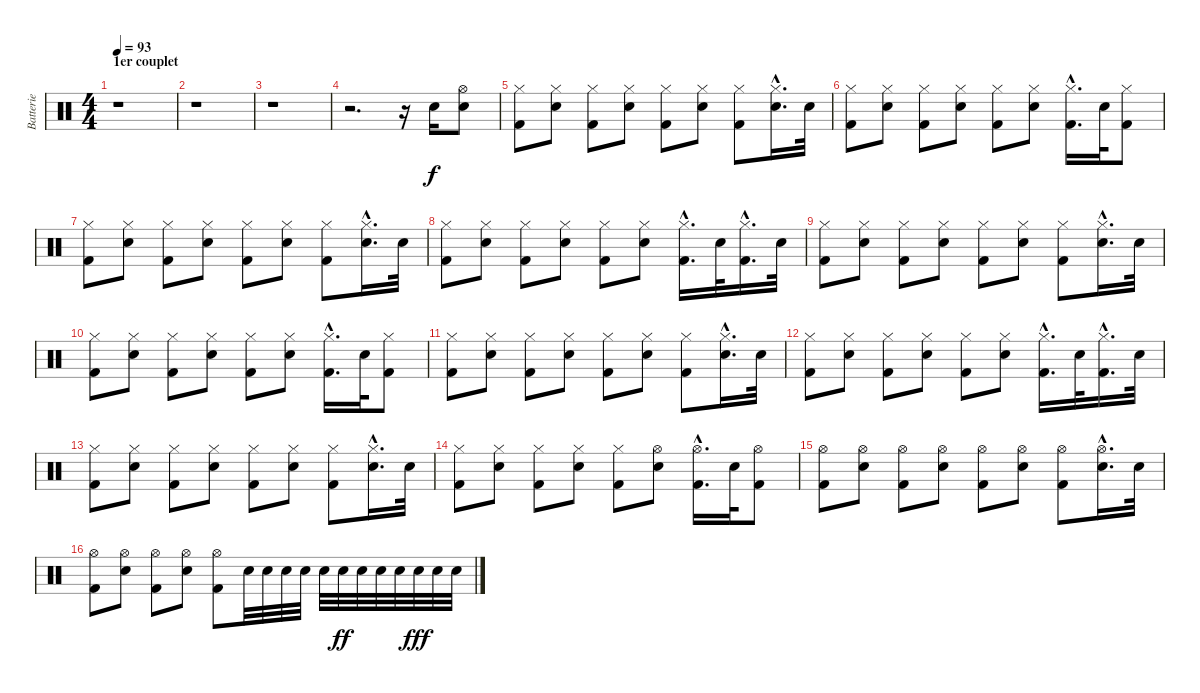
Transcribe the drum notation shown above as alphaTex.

\track ("Batterie" "Batterie") {instrument percussion}
\staff {score}
\articulation defaults
\ts (4 4)
\section ("" "1er couplet")
\tempo 93
\clef neutral
\ks c
r.1{dy f} |
r.1 |
r.1 |
r.2{d} r.16 "Snare (hit) 2".16 ("Hi-Hat (open)" "Snare (hit) 2").8 |
("Hi-Hat (closed)" "Kick (hit) 2").8 ("Hi-Hat (closed)" "Snare (hit) 2").8 ("Hi-Hat (closed)" "Kick (hit) 2").8 ("Hi-Hat (closed)" "Snare (hit) 2").8 ("Hi-Hat (closed)" "Kick (hit) 2").8 ("Hi-Hat (closed)" "Snare (hit) 2").8 ("Hi-Hat (closed)" "Kick (hit) 2").8 ("Hi-Hat (closed)"{hac} "Snare (hit) 2"{hac}).16{d} "Snare (hit) 2".32 |
("Hi-Hat (closed)" "Kick (hit) 2").8 ("Hi-Hat (closed)" "Snare (hit) 2").8 ("Hi-Hat (closed)" "Kick (hit) 2").8 ("Hi-Hat (closed)" "Snare (hit) 2").8 ("Hi-Hat (closed)" "Kick (hit) 2").8 ("Hi-Hat (closed)" "Snare (hit) 2").8 ("Hi-Hat (closed)"{hac} "Kick (hit) 2"{hac}).16{d} "Snare (hit) 2".32 ("Hi-Hat (closed)" "Kick (hit) 2").8 |
("Hi-Hat (closed)" "Kick (hit) 2").8 ("Hi-Hat (closed)" "Snare (hit) 2").8 ("Hi-Hat (closed)" "Kick (hit) 2").8 ("Hi-Hat (closed)" "Snare (hit) 2").8 ("Hi-Hat (closed)" "Kick (hit) 2").8 ("Hi-Hat (closed)" "Snare (hit) 2").8 ("Hi-Hat (closed)" "Kick (hit) 2").8 ("Hi-Hat (closed)"{hac} "Snare (hit) 2"{hac}).16{d} "Snare (hit) 2".32 |
("Hi-Hat (closed)" "Kick (hit) 2").8 ("Hi-Hat (closed)" "Snare (hit) 2").8 ("Hi-Hat (closed)" "Kick (hit) 2").8 ("Hi-Hat (closed)" "Snare (hit) 2").8 ("Hi-Hat (closed)" "Kick (hit) 2").8 ("Hi-Hat (closed)" "Snare (hit) 2").8 ("Hi-Hat (closed)"{hac} "Kick (hit) 2"{hac}).16{d} "Snare (hit) 2".32 ("Hi-Hat (closed)"{hac} "Kick (hit) 2"{hac}).16{d} "Snare (hit) 2".32 |
("Hi-Hat (closed)" "Kick (hit) 2").8 ("Hi-Hat (closed)" "Snare (hit) 2").8 ("Hi-Hat (closed)" "Kick (hit) 2").8 ("Hi-Hat (closed)" "Snare (hit) 2").8 ("Hi-Hat (closed)" "Kick (hit) 2").8 ("Hi-Hat (closed)" "Snare (hit) 2").8 ("Hi-Hat (closed)" "Kick (hit) 2").8 ("Hi-Hat (closed)"{hac} "Snare (hit) 2"{hac}).16{d} "Snare (hit) 2".32 |
("Hi-Hat (closed)" "Kick (hit) 2").8 ("Hi-Hat (closed)" "Snare (hit) 2").8 ("Hi-Hat (closed)" "Kick (hit) 2").8 ("Hi-Hat (closed)" "Snare (hit) 2").8 ("Hi-Hat (closed)" "Kick (hit) 2").8 ("Hi-Hat (closed)" "Snare (hit) 2").8 ("Hi-Hat (closed)"{hac} "Kick (hit) 2"{hac}).16{d} "Snare (hit) 2".32 ("Hi-Hat (closed)" "Kick (hit) 2").8 |
("Hi-Hat (closed)" "Kick (hit) 2").8 ("Hi-Hat (closed)" "Snare (hit) 2").8 ("Hi-Hat (closed)" "Kick (hit) 2").8 ("Hi-Hat (closed)" "Snare (hit) 2").8 ("Hi-Hat (closed)" "Kick (hit) 2").8 ("Hi-Hat (closed)" "Snare (hit) 2").8 ("Hi-Hat (closed)" "Kick (hit) 2").8 ("Hi-Hat (closed)"{hac} "Snare (hit) 2"{hac}).16{d} "Snare (hit) 2".32 |
("Hi-Hat (closed)" "Kick (hit) 2").8 ("Hi-Hat (closed)" "Snare (hit) 2").8 ("Hi-Hat (closed)" "Kick (hit) 2").8 ("Hi-Hat (closed)" "Snare (hit) 2").8 ("Hi-Hat (closed)" "Kick (hit) 2").8 ("Hi-Hat (closed)" "Snare (hit) 2").8 ("Hi-Hat (closed)"{hac} "Kick (hit) 2"{hac}).16{d} "Snare (hit) 2".32 ("Hi-Hat (closed)"{hac} "Kick (hit) 2"{hac}).16{d} "Snare (hit) 2".32 |
("Hi-Hat (closed)" "Kick (hit) 2").8 ("Hi-Hat (closed)" "Snare (hit) 2").8 ("Hi-Hat (closed)" "Kick (hit) 2").8 ("Hi-Hat (closed)" "Snare (hit) 2").8 ("Hi-Hat (closed)" "Kick (hit) 2").8 ("Hi-Hat (closed)" "Snare (hit) 2").8 ("Hi-Hat (closed)" "Kick (hit) 2").8 ("Hi-Hat (closed)"{hac} "Snare (hit) 2"{hac}).16{d} "Snare (hit) 2".32 |
("Hi-Hat (closed)" "Kick (hit) 2").8 ("Hi-Hat (closed)" "Snare (hit) 2").8 ("Hi-Hat (closed)" "Kick (hit) 2").8 ("Hi-Hat (closed)" "Snare (hit) 2").8 ("Hi-Hat (closed)" "Kick (hit) 2").8 ("Hi-Hat (open)" "Snare (hit) 2").8 ("Hi-Hat (open)"{hac} "Kick (hit) 2"{hac}).16{d} "Snare (hit) 2".32 ("Hi-Hat (open)" "Kick (hit) 2").8 |
("Hi-Hat (open)" "Kick (hit) 2").8 ("Hi-Hat (open)" "Snare (hit) 2").8 ("Hi-Hat (open)" "Kick (hit) 2").8 ("Hi-Hat (open)" "Snare (hit) 2").8 ("Hi-Hat (open)" "Kick (hit) 2").8 ("Hi-Hat (open)" "Snare (hit) 2").8 ("Hi-Hat (open)" "Kick (hit) 2").8 ("Hi-Hat (open)"{hac} "Snare (hit) 2"{hac}).16{d} "Snare (hit) 2".32 |
("Hi-Hat (open)" "Kick (hit) 2").8 ("Hi-Hat (open)" "Snare (hit) 2").8 ("Hi-Hat (open)" "Kick (hit) 2").8 ("Hi-Hat (open)" "Snare (hit) 2").8 ("Hi-Hat (open)" "Kick (hit) 2").8 "Snare (hit) 2".32 "Snare (hit) 2".32 "Snare (hit) 2".32 "Snare (hit) 2".32 "Snare (hit) 2".32 "Snare (hit) 2".32{dy ff} "Snare (hit) 2".32 "Snare (hit) 2".32 "Snare (hit) 2".32 "Snare (hit) 2".32{dy fff} "Snare (hit) 2".32 "Snare (hit) 2".32
